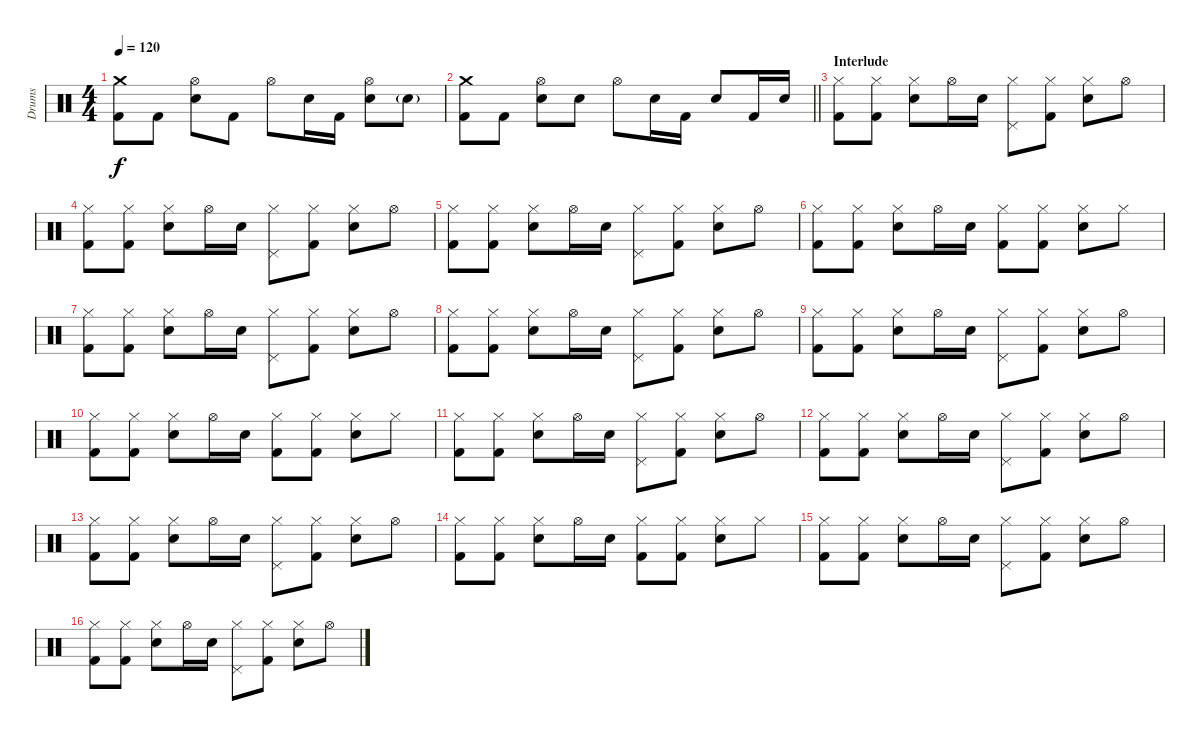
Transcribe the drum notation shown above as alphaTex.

\track ("Drums" "Drums") {instrument percussion}
\staff {score}
\articulation defaults
\ts (4 4)
\tempo 120
\clef neutral
\ks c
("Crash medium (hit)" "Kick (hit) 2").8{dy f} "Kick (hit) 2".8 ("Hi-Hat (open)" "Electric Snare (hit)").8 "Kick (hit) 2".8 "Hi-Hat (open)".8 "Electric Snare (hit)".16 "Kick (hit) 2".16 ("Hi-Hat (open)" "Electric Snare (hit)").8 "Electric Snare (hit)"{g}.8 |
\barLineRight lightlight
("Crash medium (hit)" "Kick (hit) 2").8 "Kick (hit) 2".8 ("Hi-Hat (open)" "Electric Snare (hit)").8 "Electric Snare (hit)".8 "Hi-Hat (open)".8 "Electric Snare (hit)".16 "Kick (hit) 2".16 "Electric Snare (hit)".8 "Kick (hit) 2".16 "Electric Snare (hit)".16 |
\section ("" "Interlude")
("Hi-Hat (closed)" "Kick (hit) 2").8 ("Hi-Hat (closed)" "Kick (hit) 2").8 ("Hi-Hat (closed)" "Electric Snare (hit)").8 "Hi-Hat (open)".16 "Electric Snare (hit)".16 ("Hi-Hat (closed)" "Pedal Hi-Hat (hit)").8 ("Hi-Hat (closed)" "Kick (hit) 2").8 ("Hi-Hat (closed)" "Electric Snare (hit)").8 "Hi-Hat (open)".8 |
("Hi-Hat (closed)" "Kick (hit) 2").8 ("Hi-Hat (closed)" "Kick (hit) 2").8 ("Hi-Hat (closed)" "Electric Snare (hit)").8 "Hi-Hat (open)".16 "Electric Snare (hit)".16 ("Hi-Hat (closed)" "Pedal Hi-Hat (hit)").8 ("Hi-Hat (closed)" "Kick (hit) 2").8 ("Hi-Hat (closed)" "Electric Snare (hit)").8 "Hi-Hat (open)".8 |
("Hi-Hat (closed)" "Kick (hit) 2").8 ("Hi-Hat (closed)" "Kick (hit) 2").8 ("Hi-Hat (closed)" "Electric Snare (hit)").8 "Hi-Hat (open)".16 "Electric Snare (hit)".16 ("Hi-Hat (closed)" "Pedal Hi-Hat (hit)").8 ("Hi-Hat (closed)" "Kick (hit) 2").8 ("Hi-Hat (closed)" "Electric Snare (hit)").8 "Hi-Hat (open)".8 |
("Hi-Hat (closed)" "Kick (hit) 2").8 ("Hi-Hat (closed)" "Kick (hit) 2").8 ("Hi-Hat (closed)" "Electric Snare (hit)").8 "Hi-Hat (open)".16 "Electric Snare (hit)".16 ("Hi-Hat (closed)" "Kick (hit) 2").8 ("Hi-Hat (closed)" "Kick (hit) 2").8 ("Hi-Hat (closed)" "Electric Snare (hit)").8 "Hi-Hat (closed)".8 |
("Hi-Hat (closed)" "Kick (hit) 2").8 ("Hi-Hat (closed)" "Kick (hit) 2").8 ("Hi-Hat (closed)" "Electric Snare (hit)").8 "Hi-Hat (open)".16 "Electric Snare (hit)".16 ("Hi-Hat (closed)" "Pedal Hi-Hat (hit)").8 ("Hi-Hat (closed)" "Kick (hit) 2").8 ("Hi-Hat (closed)" "Electric Snare (hit)").8 "Hi-Hat (open)".8 |
("Hi-Hat (closed)" "Kick (hit) 2").8 ("Hi-Hat (closed)" "Kick (hit) 2").8 ("Hi-Hat (closed)" "Electric Snare (hit)").8 "Hi-Hat (open)".16 "Electric Snare (hit)".16 ("Hi-Hat (closed)" "Pedal Hi-Hat (hit)").8 ("Hi-Hat (closed)" "Kick (hit) 2").8 ("Hi-Hat (closed)" "Electric Snare (hit)").8 "Hi-Hat (open)".8 |
("Hi-Hat (closed)" "Kick (hit) 2").8 ("Hi-Hat (closed)" "Kick (hit) 2").8 ("Hi-Hat (closed)" "Electric Snare (hit)").8 "Hi-Hat (open)".16 "Electric Snare (hit)".16 ("Hi-Hat (closed)" "Pedal Hi-Hat (hit)").8 ("Hi-Hat (closed)" "Kick (hit) 2").8 ("Hi-Hat (closed)" "Electric Snare (hit)").8 "Hi-Hat (open)".8 |
("Hi-Hat (closed)" "Kick (hit) 2").8 ("Hi-Hat (closed)" "Kick (hit) 2").8 ("Hi-Hat (closed)" "Electric Snare (hit)").8 "Hi-Hat (open)".16 "Electric Snare (hit)".16 ("Hi-Hat (closed)" "Kick (hit) 2").8 ("Hi-Hat (closed)" "Kick (hit) 2").8 ("Hi-Hat (closed)" "Electric Snare (hit)").8 "Hi-Hat (closed)".8 |
("Hi-Hat (closed)" "Kick (hit) 2").8 ("Hi-Hat (closed)" "Kick (hit) 2").8 ("Hi-Hat (closed)" "Electric Snare (hit)").8 "Hi-Hat (open)".16 "Electric Snare (hit)".16 ("Hi-Hat (closed)" "Pedal Hi-Hat (hit)").8 ("Hi-Hat (closed)" "Kick (hit) 2").8 ("Hi-Hat (closed)" "Electric Snare (hit)").8 "Hi-Hat (open)".8 |
("Hi-Hat (closed)" "Kick (hit) 2").8 ("Hi-Hat (closed)" "Kick (hit) 2").8 ("Hi-Hat (closed)" "Electric Snare (hit)").8 "Hi-Hat (open)".16 "Electric Snare (hit)".16 ("Hi-Hat (closed)" "Pedal Hi-Hat (hit)").8 ("Hi-Hat (closed)" "Kick (hit) 2").8 ("Hi-Hat (closed)" "Electric Snare (hit)").8 "Hi-Hat (open)".8 |
("Hi-Hat (closed)" "Kick (hit) 2").8 ("Hi-Hat (closed)" "Kick (hit) 2").8 ("Hi-Hat (closed)" "Electric Snare (hit)").8 "Hi-Hat (open)".16 "Electric Snare (hit)".16 ("Hi-Hat (closed)" "Pedal Hi-Hat (hit)").8 ("Hi-Hat (closed)" "Kick (hit) 2").8 ("Hi-Hat (closed)" "Electric Snare (hit)").8 "Hi-Hat (open)".8 |
("Hi-Hat (closed)" "Kick (hit) 2").8 ("Hi-Hat (closed)" "Kick (hit) 2").8 ("Hi-Hat (closed)" "Electric Snare (hit)").8 "Hi-Hat (open)".16 "Electric Snare (hit)".16 ("Hi-Hat (closed)" "Kick (hit) 2").8 ("Hi-Hat (closed)" "Kick (hit) 2").8 ("Hi-Hat (closed)" "Electric Snare (hit)").8 "Hi-Hat (closed)".8 |
("Hi-Hat (closed)" "Kick (hit) 2").8 ("Hi-Hat (closed)" "Kick (hit) 2").8 ("Hi-Hat (closed)" "Electric Snare (hit)").8 "Hi-Hat (open)".16 "Electric Snare (hit)".16 ("Hi-Hat (closed)" "Pedal Hi-Hat (hit)").8 ("Hi-Hat (closed)" "Kick (hit) 2").8 ("Hi-Hat (closed)" "Electric Snare (hit)").8 "Hi-Hat (open)".8 |
("Hi-Hat (closed)" "Kick (hit) 2").8 ("Hi-Hat (closed)" "Kick (hit) 2").8 ("Hi-Hat (closed)" "Electric Snare (hit)").8 "Hi-Hat (open)".16 "Electric Snare (hit)".16 ("Hi-Hat (closed)" "Pedal Hi-Hat (hit)").8 ("Hi-Hat (closed)" "Kick (hit) 2").8 ("Hi-Hat (closed)" "Electric Snare (hit)").8 "Hi-Hat (open)".8
